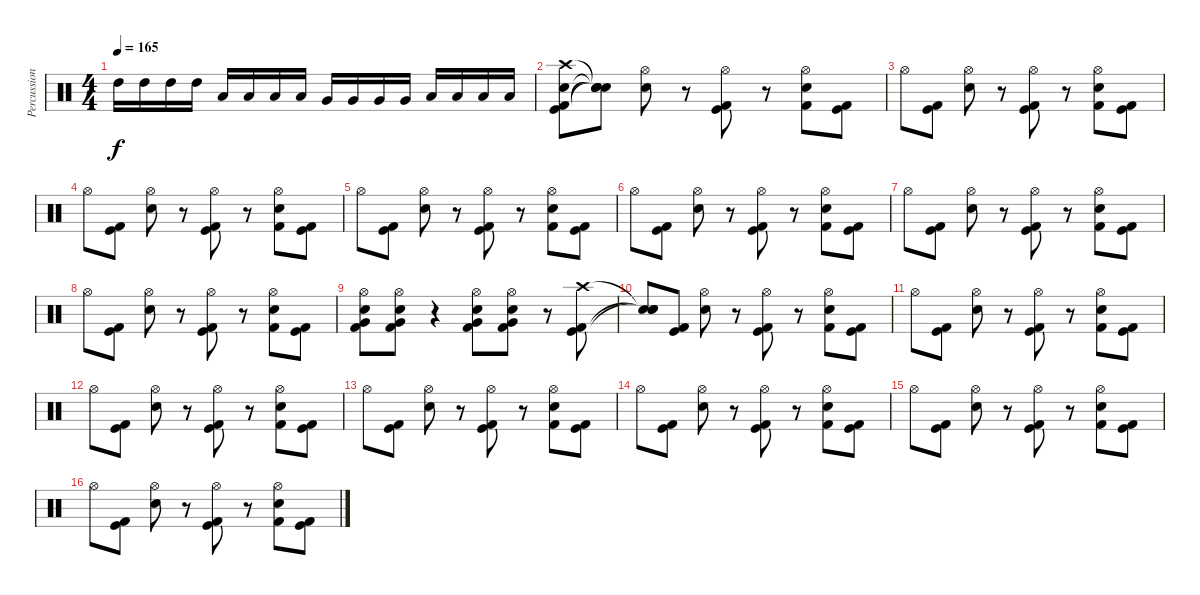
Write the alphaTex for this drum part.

\track ("Percussions" "Percussion") {instrument percussion}
\staff {score}
\articulation defaults
\ts (4 4)
\tempo 165
\clef neutral
\ks c "High Tom (hit)".16{dy f} "High Tom (hit)".16 "High Tom (hit)".16 "High Tom (hit)".16 "Low Tom (hit)".16 "Low Tom (hit)".16 "Low Tom (hit)".16 "Low Tom (hit)".16 "Very Low Tom (hit)".16 "Very Low Tom (hit)".16 "Very Low Tom (hit)".16 "Very Low Tom (hit)".16 "Low Floor Tom (hit)".16 "Low Floor Tom (hit)".16 "Low Floor Tom (hit)".16 "Low Floor Tom (hit)".16
|
("Snare (hit) 2" "Kick (hit)" "Kick (hit) 2" "Crash high (hit)").8 ("Snare (hit)"{t} "Snare (hit)"{t} "Snare (hit)"{t} "Snare (hit)"{t}).8 ("Snare (hit) 2" "Hi-Hat (open)").8 r.8 ("Kick (hit) 2" "Kick (hit)" "Hi-Hat (open)").8 r.8 ("Kick (hit) 2" "Snare (hit) 2" "Hi-Hat (open)").8 ("Kick (hit) 2" "Kick (hit)").8 |
"Hi-Hat (open)".8 ("Kick (hit) 2" "Kick (hit)").8 ("Snare (hit) 2" "Hi-Hat (open)").8 r.8 ("Kick (hit) 2" "Kick (hit)" "Hi-Hat (open)").8 r.8 ("Kick (hit) 2" "Snare (hit) 2" "Hi-Hat (open)").8 ("Kick (hit) 2" "Kick (hit)").8 |
"Hi-Hat (open)".8 ("Kick (hit) 2" "Kick (hit)").8 ("Snare (hit) 2" "Hi-Hat (open)").8 r.8 ("Kick (hit) 2" "Kick (hit)" "Hi-Hat (open)").8 r.8 ("Kick (hit) 2" "Snare (hit) 2" "Hi-Hat (open)").8 ("Kick (hit) 2" "Kick (hit)").8 |
"Hi-Hat (open)".8 ("Kick (hit) 2" "Kick (hit)").8 ("Snare (hit) 2" "Hi-Hat (open)").8 r.8 ("Kick (hit) 2" "Kick (hit)" "Hi-Hat (open)").8 r.8 ("Kick (hit) 2" "Snare (hit) 2" "Hi-Hat (open)").8 ("Kick (hit) 2" "Kick (hit)").8 |
"Hi-Hat (open)".8 ("Kick (hit) 2" "Kick (hit)").8 ("Snare (hit) 2" "Hi-Hat (open)").8 r.8 ("Kick (hit) 2" "Kick (hit)" "Hi-Hat (open)").8 r.8 ("Kick (hit) 2" "Snare (hit) 2" "Hi-Hat (open)").8 ("Kick (hit) 2" "Kick (hit)").8 |
"Hi-Hat (open)".8 ("Kick (hit) 2" "Kick (hit)").8 ("Snare (hit) 2" "Hi-Hat (open)").8 r.8 ("Kick (hit) 2" "Kick (hit)" "Hi-Hat (open)").8 r.8 ("Kick (hit) 2" "Snare (hit) 2" "Hi-Hat (open)").8 ("Kick (hit) 2" "Kick (hit)").8 |
"Hi-Hat (open)".8 ("Kick (hit) 2" "Kick (hit)").8 ("Snare (hit) 2" "Hi-Hat (open)").8 r.8 ("Kick (hit) 2" "Kick (hit)" "Hi-Hat (open)").8 r.8 ("Kick (hit) 2" "Snare (hit) 2" "Hi-Hat (open)").8 ("Kick (hit) 2" "Kick (hit)").8 |
("Hi-Hat (open)" "Snare (hit) 2" "Very Low Tom (hit)" "Kick (hit) 2").8 ("Hi-Hat (open)" "Snare (hit) 2" "Very Low Tom (hit)" "Kick (hit) 2").8 r.4 ("Hi-Hat (open)" "Snare (hit) 2" "Very Low Tom (hit)" "Kick (hit) 2").8 ("Hi-Hat (open)" "Snare (hit) 2" "Very Low Tom (hit)" "Kick (hit) 2").8 r.8 ("Kick (hit) 2" "Kick (hit)" "Crash high (hit)").8 |
("Snare (hit)"{t} "Snare (hit)"{t} "Snare (hit)"{t}).8 ("Kick (hit) 2" "Kick (hit)").8 ("Snare (hit) 2" "Hi-Hat (open)").8 r.8 ("Kick (hit) 2" "Kick (hit)" "Hi-Hat (open)").8 r.8 ("Kick (hit) 2" "Snare (hit) 2" "Hi-Hat (open)").8 ("Kick (hit) 2" "Kick (hit)").8 |
"Hi-Hat (open)".8 ("Kick (hit) 2" "Kick (hit)").8 ("Snare (hit) 2" "Hi-Hat (open)").8 r.8 ("Kick (hit) 2" "Kick (hit)" "Hi-Hat (open)").8 r.8 ("Kick (hit) 2" "Snare (hit) 2" "Hi-Hat (open)").8 ("Kick (hit) 2" "Kick (hit)").8 |
"Hi-Hat (open)".8 ("Kick (hit) 2" "Kick (hit)").8 ("Snare (hit) 2" "Hi-Hat (open)").8 r.8 ("Kick (hit) 2" "Kick (hit)" "Hi-Hat (open)").8 r.8 ("Kick (hit) 2" "Snare (hit) 2" "Hi-Hat (open)").8 ("Kick (hit) 2" "Kick (hit)").8 |
"Hi-Hat (open)".8 ("Kick (hit) 2" "Kick (hit)").8 ("Snare (hit) 2" "Hi-Hat (open)").8 r.8 ("Kick (hit) 2" "Kick (hit)" "Hi-Hat (open)").8 r.8 ("Kick (hit) 2" "Snare (hit) 2" "Hi-Hat (open)").8 ("Kick (hit) 2" "Kick (hit)").8 |
"Hi-Hat (open)".8 ("Kick (hit) 2" "Kick (hit)").8 ("Snare (hit) 2" "Hi-Hat (open)").8 r.8 ("Kick (hit) 2" "Kick (hit)" "Hi-Hat (open)").8 r.8 ("Kick (hit) 2" "Snare (hit) 2" "Hi-Hat (open)").8 ("Kick (hit) 2" "Kick (hit)").8 |
"Hi-Hat (open)".8 ("Kick (hit) 2" "Kick (hit)").8 ("Snare (hit) 2" "Hi-Hat (open)").8 r.8 ("Kick (hit) 2" "Kick (hit)" "Hi-Hat (open)").8 r.8 ("Kick (hit) 2" "Snare (hit) 2" "Hi-Hat (open)").8 ("Kick (hit) 2" "Kick (hit)").8 |
"Hi-Hat (open)".8 ("Kick (hit) 2" "Kick (hit)").8 ("Snare (hit) 2" "Hi-Hat (open)").8 r.8 ("Kick (hit) 2" "Kick (hit)" "Hi-Hat (open)").8 r.8 ("Kick (hit) 2" "Snare (hit) 2" "Hi-Hat (open)").8 ("Kick (hit) 2" "Kick (hit)").8
